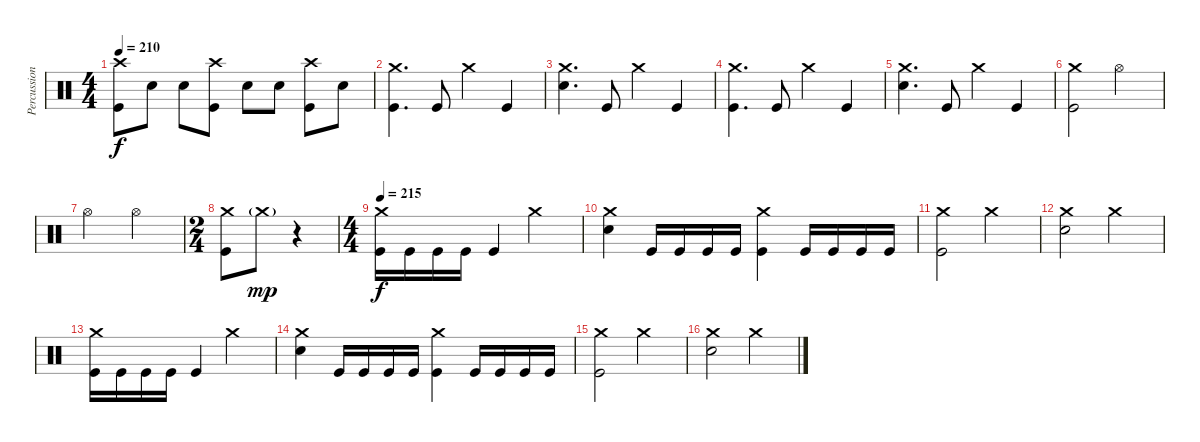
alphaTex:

\track ("Percussion" "Percussion") {instrument percussion}
\staff {score}
\articulation defaults
\ts (4 4)
\tempo 210
\clef neutral
\ks c
("Crash high (hit)" "Kick (hit)").8{dy f} "Snare (hit) 2".8 "Snare (hit) 2".8 ("Crash high (hit)" "Kick (hit)").8 "Snare (hit) 2".8 "Snare (hit) 2".8 ("Crash high (hit)" "Kick (hit)").8 "Snare (hit) 2".8 |
("Crash medium (hit)" "Kick (hit)").4{d} "Kick (hit)".8 "Crash medium (hit)".4 "Kick (hit)".4 |
("Crash medium (hit)" "Snare (hit) 2").4{d} "Kick (hit)".8 "Crash medium (hit)".4 "Kick (hit)".4 |
("Crash medium (hit)" "Kick (hit)").4{d} "Kick (hit)".8 "Crash medium (hit)".4 "Kick (hit)".4 |
("Crash medium (hit)" "Snare (hit) 2").4{d} "Kick (hit)".8 "Crash medium (hit)".4 "Kick (hit)".4 |
("Crash medium (hit)" "Kick (hit)").2 "Hi-Hat (open)".2 |
"Hi-Hat (open)".2 "Hi-Hat (open)".2 |
\ts (2 4)
("Crash medium (hit)" "Kick (hit)").8 "Crash medium (hit)"{g}.8{dy mp} r.4 |
\ts (4 4)
\tempo 215
("Crash medium (hit)" "Kick (hit)").16{dy f} "Kick (hit)".16 "Kick (hit)".16 "Kick (hit)".16 "Kick (hit)".4 "Crash medium (hit)".2 |
("Crash medium (hit)" "Snare (hit) 2").4 "Kick (hit)".16 "Kick (hit)".16 "Kick (hit)".16 "Kick (hit)".16 ("Crash medium (hit)" "Kick (hit)").4 "Kick (hit)".16 "Kick (hit)".16 "Kick (hit)".16 "Kick (hit)".16 |
("Crash medium (hit)" "Kick (hit)").2 "Crash medium (hit)".2 |
("Crash medium (hit)" "Snare (hit) 2").2 "Crash medium (hit)".2 |
("Crash medium (hit)" "Kick (hit)").16 "Kick (hit)".16 "Kick (hit)".16 "Kick (hit)".16 "Kick (hit)".4 "Crash medium (hit)".2 |
("Crash medium (hit)" "Snare (hit) 2").4 "Kick (hit)".16 "Kick (hit)".16 "Kick (hit)".16 "Kick (hit)".16 ("Crash medium (hit)" "Kick (hit)").4 "Kick (hit)".16 "Kick (hit)".16 "Kick (hit)".16 "Kick (hit)".16 |
("Crash medium (hit)" "Kick (hit)").2 "Crash medium (hit)".2 |
("Crash medium (hit)" "Snare (hit) 2").2 "Crash medium (hit)".2
